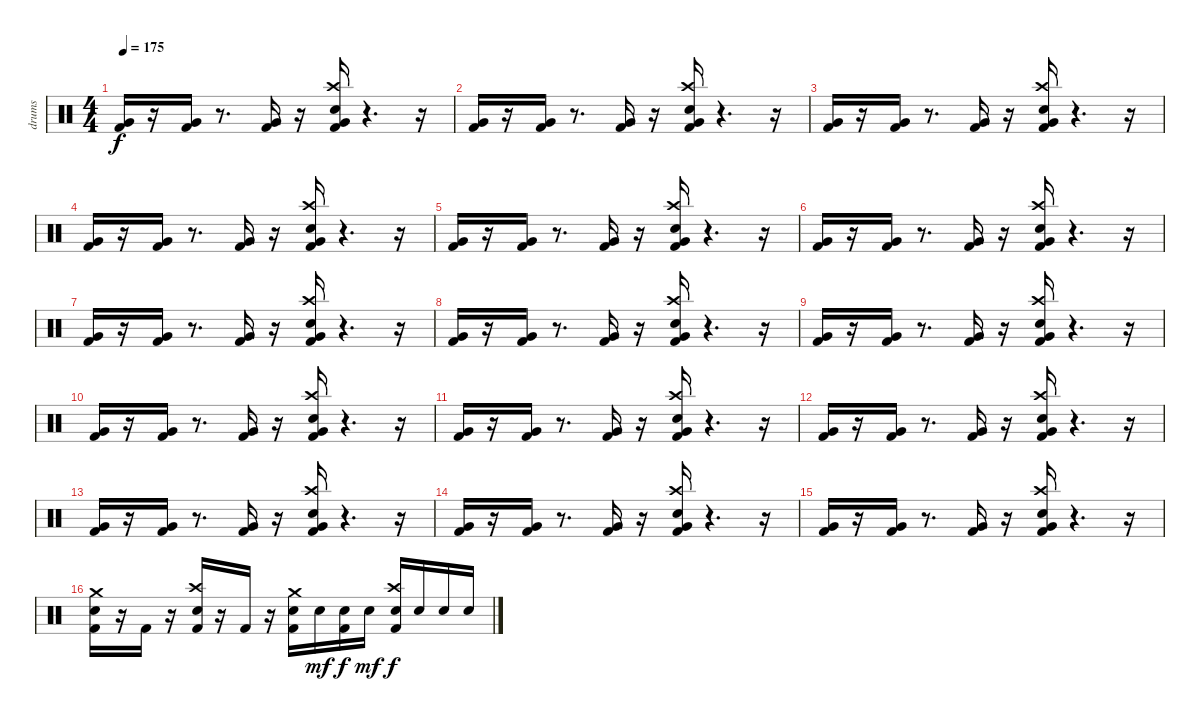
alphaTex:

\track ("drums" "drums") {instrument percussion}
\staff {score}
\articulation defaults
\ts (4 4)
\tempo 175
\clef neutral
\ks c
("Very Low Tom (hit)" "Kick (hit) 2").16{dy f} r.16 ("Very Low Tom (hit)" "Kick (hit) 2").16 r.8{d} ("Kick (hit) 2" "Very Low Tom (hit)").16 r.16 ("Very Low Tom (hit)" "Crash high (hit)" "Electric Snare (hit)" "Kick (hit) 2").16 r.4{d} r.16 |
("Kick (hit) 2" "Very Low Tom (hit)").16 r.16 ("Kick (hit) 2" "Very Low Tom (hit)").16 r.8{d} ("Kick (hit) 2" "Very Low Tom (hit)").16 r.16 ("Kick (hit) 2" "Crash high (hit)" "Electric Snare (hit)" "Very Low Tom (hit)").16 r.4{d} r.16 |
("Kick (hit) 2" "Very Low Tom (hit)").16 r.16 ("Kick (hit) 2" "Very Low Tom (hit)").16 r.8{d} ("Kick (hit) 2" "Very Low Tom (hit)").16 r.16 ("Kick (hit) 2" "Crash high (hit)" "Electric Snare (hit)" "Very Low Tom (hit)").16 r.4{d} r.16 |
("Kick (hit) 2" "Very Low Tom (hit)").16 r.16 ("Kick (hit) 2" "Very Low Tom (hit)").16 r.8{d} ("Kick (hit) 2" "Very Low Tom (hit)").16 r.16 ("Kick (hit) 2" "Crash high (hit)" "Electric Snare (hit)" "Very Low Tom (hit)").16 r.4{d} r.16 |
("Kick (hit) 2" "Very Low Tom (hit)").16 r.16 ("Kick (hit) 2" "Very Low Tom (hit)").16 r.8{d} ("Kick (hit) 2" "Very Low Tom (hit)").16 r.16 ("Kick (hit) 2" "Crash high (hit)" "Electric Snare (hit)" "Very Low Tom (hit)").16 r.4{d} r.16 |
("Kick (hit) 2" "Very Low Tom (hit)").16 r.16 ("Kick (hit) 2" "Very Low Tom (hit)").16 r.8{d} ("Kick (hit) 2" "Very Low Tom (hit)").16 r.16 ("Kick (hit) 2" "Crash high (hit)" "Electric Snare (hit)" "Very Low Tom (hit)").16 r.4{d} r.16 |
("Kick (hit) 2" "Very Low Tom (hit)").16 r.16 ("Kick (hit) 2" "Very Low Tom (hit)").16 r.8{d} ("Kick (hit) 2" "Very Low Tom (hit)").16 r.16 ("Kick (hit) 2" "Crash high (hit)" "Electric Snare (hit)" "Very Low Tom (hit)").16 r.4{d} r.16 |
("Kick (hit) 2" "Very Low Tom (hit)").16 r.16 ("Kick (hit) 2" "Very Low Tom (hit)").16 r.8{d} ("Kick (hit) 2" "Very Low Tom (hit)").16 r.16 ("Kick (hit) 2" "Crash high (hit)" "Electric Snare (hit)" "Very Low Tom (hit)").16 r.4{d} r.16 |
("Kick (hit) 2" "Very Low Tom (hit)").16 r.16 ("Kick (hit) 2" "Very Low Tom (hit)").16 r.8{d} ("Kick (hit) 2" "Very Low Tom (hit)").16 r.16 ("Crash high (hit)" "Electric Snare (hit)" "Kick (hit) 2" "Very Low Tom (hit)").16 r.4{d} r.16 |
("Kick (hit) 2" "Very Low Tom (hit)").16 r.16 ("Kick (hit) 2" "Very Low Tom (hit)").16 r.8{d} ("Kick (hit) 2" "Very Low Tom (hit)").16 r.16 ("Kick (hit) 2" "Crash high (hit)" "Electric Snare (hit)" "Very Low Tom (hit)").16 r.4{d} r.16 |
("Kick (hit) 2" "Very Low Tom (hit)").16 r.16 ("Kick (hit) 2" "Very Low Tom (hit)").16 r.8{d} ("Kick (hit) 2" "Very Low Tom (hit)").16 r.16 ("Kick (hit) 2" "Crash high (hit)" "Electric Snare (hit)" "Very Low Tom (hit)").16 r.4{d} r.16 |
("Kick (hit) 2" "Very Low Tom (hit)").16 r.16 ("Kick (hit) 2" "Very Low Tom (hit)").16 r.8{d} ("Kick (hit) 2" "Very Low Tom (hit)").16 r.16 ("Kick (hit) 2" "Crash high (hit)" "Electric Snare (hit)" "Very Low Tom (hit)").16 r.4{d} r.16 |
("Kick (hit) 2" "Very Low Tom (hit)").16 r.16 ("Kick (hit) 2" "Very Low Tom (hit)").16 r.8{d} ("Kick (hit) 2" "Very Low Tom (hit)").16 r.16 ("Kick (hit) 2" "Crash high (hit)" "Electric Snare (hit)" "Very Low Tom (hit)").16 r.4{d} r.16 |
("Kick (hit) 2" "Very Low Tom (hit)").16 r.16 ("Kick (hit) 2" "Very Low Tom (hit)").16 r.8{d} ("Kick (hit) 2" "Very Low Tom (hit)").16 r.16 ("Kick (hit) 2" "Crash high (hit)" "Electric Snare (hit)" "Very Low Tom (hit)").16 r.4{d} r.16 |
("Kick (hit) 2" "Very Low Tom (hit)").16 r.16 ("Kick (hit) 2" "Very Low Tom (hit)").16 r.8{d} ("Kick (hit) 2" "Very Low Tom (hit)").16 r.16 ("Kick (hit) 2" "Crash high (hit)" "Electric Snare (hit)" "Very Low Tom (hit)").16 r.4{d} r.16 |
("Kick (hit) 2" "Crash medium (hit)" "Electric Snare (hit)").16 r.16 "Kick (hit) 2".16 r.16 ("Kick (hit) 2" "Electric Snare (hit)" "Crash high (hit)").16 r.16 "Kick (hit) 2".16 r.16 ("Kick (hit) 2" "Crash medium (hit)" "Electric Snare (hit)").16 "Electric Snare (hit)".16{dy mf} ("Kick (hit) 2" "Electric Snare (hit)").16{dy f} "Electric Snare (hit)".16{dy mf} ("Kick (hit) 2" "Electric Snare (hit)" "Crash high (hit)").16{dy f} "Electric Snare (hit)".16 "Electric Snare (hit)".16 "Electric Snare (hit)".16
